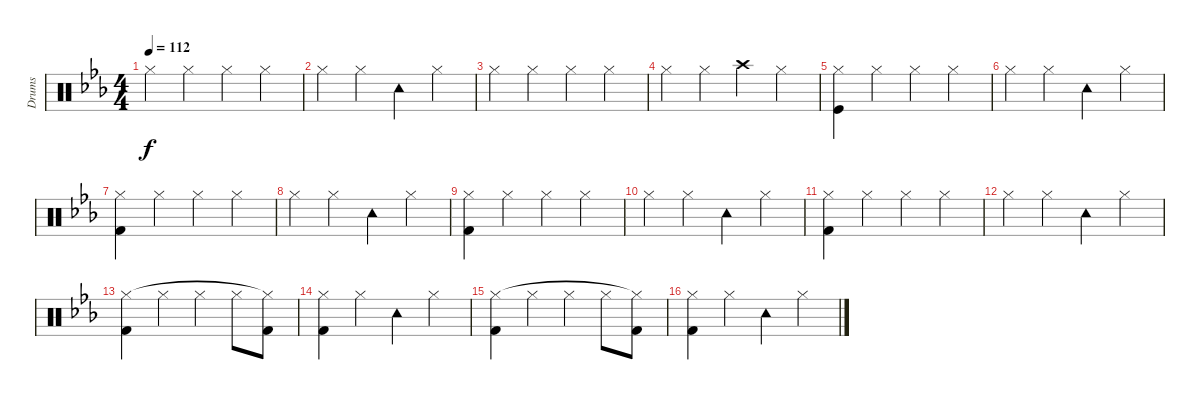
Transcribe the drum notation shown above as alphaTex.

\track ("Drums" "Drums") {instrument percussion}
\staff {score}
\articulation defaults
\ts (4 4)
\tempo 112
\clef neutral
\ks eb "Hi-Hat (closed)".4{dy f} "Hi-Hat (closed)".4 "Hi-Hat (closed)".4 "Hi-Hat (closed)".4
|
"Hi-Hat (closed)".4 "Hi-Hat (closed)".4 "Tambourine (hit)".4 "Hi-Hat (closed)".4 |
"Hi-Hat (closed)".4 "Hi-Hat (closed)".4 "Hi-Hat (closed)".4 "Hi-Hat (closed)".4 |
"Hi-Hat (closed)".4 "Hi-Hat (closed)".4 "Crash high (hit)".4 "Hi-Hat (closed)".4 |
("Kick (hit)" "Hi-Hat (closed)").4 "Hi-Hat (closed)".4 "Hi-Hat (closed)".4 "Hi-Hat (closed)".4 |
"Hi-Hat (closed)".4 "Hi-Hat (closed)".4 "Tambourine (hit)".4 "Hi-Hat (closed)".4 |
("Kick (hit) 2" "Hi-Hat (closed)").4 "Hi-Hat (closed)".4 "Hi-Hat (closed)".4 "Hi-Hat (closed)".4 |
"Hi-Hat (closed)".4 "Hi-Hat (closed)".4 "Tambourine (hit)".4 "Hi-Hat (closed)".4 |
("Kick (hit) 2" "Hi-Hat (closed)").4 "Hi-Hat (closed)".4 "Hi-Hat (closed)".4 "Hi-Hat (closed)".4 |
"Hi-Hat (closed)".4 "Hi-Hat (closed)".4 "Tambourine (hit)".4 "Hi-Hat (closed)".4 |
("Kick (hit) 2" "Hi-Hat (closed)").4 "Hi-Hat (closed)".4 "Hi-Hat (closed)".4 "Hi-Hat (closed)".4 |
"Hi-Hat (closed)".4 "Hi-Hat (closed)".4 "Tambourine (hit)".4 "Hi-Hat (closed)".4 |
("Kick (hit) 2" "Hi-Hat (closed)").4 "Hi-Hat (closed)".4 "Hi-Hat (closed)".4 "Hi-Hat (closed)".8 ("Kick (hit) 2" "Hi-Hat (closed)"{t}).8 |
("Kick (hit) 2" "Hi-Hat (closed)").4 "Hi-Hat (closed)".4 "Tambourine (hit)".4 "Hi-Hat (closed)".4 |
("Kick (hit) 2" "Hi-Hat (closed)").4 "Hi-Hat (closed)".4 "Hi-Hat (closed)".4 "Hi-Hat (closed)".8 ("Kick (hit) 2" "Hi-Hat (closed)"{t}).8 |
("Kick (hit) 2" "Hi-Hat (closed)").4 "Hi-Hat (closed)".4 "Tambourine (hit)".4 "Hi-Hat (closed)".4
